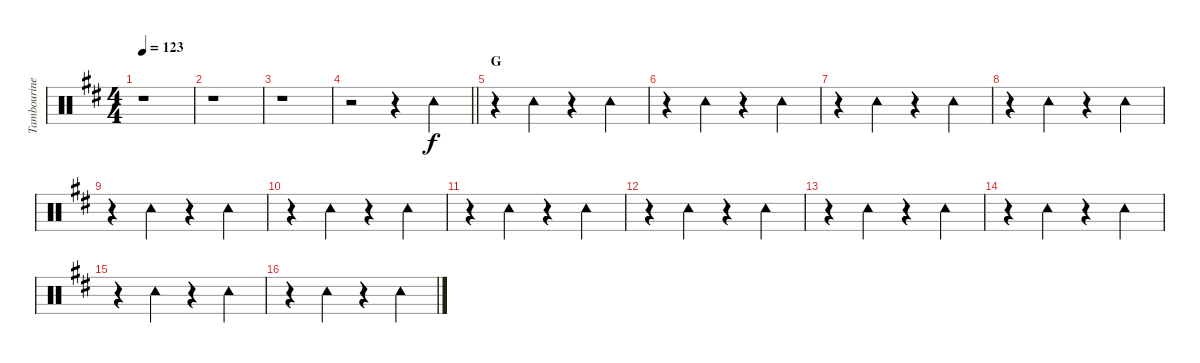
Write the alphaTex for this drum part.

\track ("Tambourine" "Tambourine") {instrument percussion}
\staff {score}
\articulation defaults
\ts (4 4)
\tempo 123
\clef neutral
\ks d
r.1{dy f} |
r.1 |
r.1 |
\barLineRight lightlight
r.2 r.4 "Tambourine (hit)".4 |
\section ("" "G")
r.4 "Tambourine (hit)".4 r.4 "Tambourine (hit)".4 |
r.4 "Tambourine (hit)".4 r.4 "Tambourine (hit)".4 |
r.4 "Tambourine (hit)".4 r.4 "Tambourine (hit)".4 |
r.4 "Tambourine (hit)".4 r.4 "Tambourine (hit)".4 |
r.4 "Tambourine (hit)".4 r.4 "Tambourine (hit)".4 |
r.4 "Tambourine (hit)".4 r.4 "Tambourine (hit)".4 |
r.4 "Tambourine (hit)".4 r.4 "Tambourine (hit)".4 |
r.4 "Tambourine (hit)".4 r.4 "Tambourine (hit)".4 |
r.4 "Tambourine (hit)".4 r.4 "Tambourine (hit)".4 |
r.4 "Tambourine (hit)".4 r.4 "Tambourine (hit)".4 |
r.4 "Tambourine (hit)".4 r.4 "Tambourine (hit)".4 |
r.4 "Tambourine (hit)".4 r.4 "Tambourine (hit)".4
